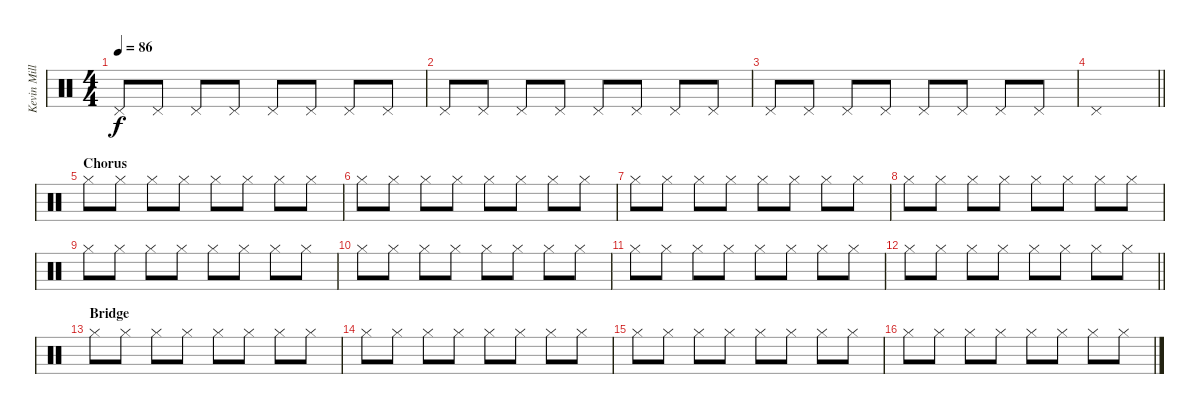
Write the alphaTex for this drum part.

\track ("Kevin Miller (Drums)" "Kevin Mill") {instrument percussion}
\staff {score}
\articulation defaults
\ts (4 4)
\tempo 86
\clef neutral
\ks c "Pedal Hi-Hat (hit)".8{dy f} "Pedal Hi-Hat (hit)".8 "Pedal Hi-Hat (hit)".8 "Pedal Hi-Hat (hit)".8 "Pedal Hi-Hat (hit)".8 "Pedal Hi-Hat (hit)".8 "Pedal Hi-Hat (hit)".8 "Pedal Hi-Hat (hit)".8
|
"Pedal Hi-Hat (hit)".8 "Pedal Hi-Hat (hit)".8 "Pedal Hi-Hat (hit)".8 "Pedal Hi-Hat (hit)".8 "Pedal Hi-Hat (hit)".8 "Pedal Hi-Hat (hit)".8 "Pedal Hi-Hat (hit)".8 "Pedal Hi-Hat (hit)".8 |
"Pedal Hi-Hat (hit)".8 "Pedal Hi-Hat (hit)".8 "Pedal Hi-Hat (hit)".8 "Pedal Hi-Hat (hit)".8 "Pedal Hi-Hat (hit)".8 "Pedal Hi-Hat (hit)".8 "Pedal Hi-Hat (hit)".8 "Pedal Hi-Hat (hit)".8 |
\barLineRight lightlight "Pedal Hi-Hat (hit)".1
|
\section ("" "Chorus")
"Hi-Hat (closed)".8 "Hi-Hat (closed)".8 "Hi-Hat (closed)".8 "Hi-Hat (closed)".8 "Hi-Hat (closed)".8 "Hi-Hat (closed)".8 "Hi-Hat (closed)".8 "Hi-Hat (closed)".8 |
"Hi-Hat (closed)".8 "Hi-Hat (closed)".8 "Hi-Hat (closed)".8 "Hi-Hat (closed)".8 "Hi-Hat (closed)".8 "Hi-Hat (closed)".8 "Hi-Hat (closed)".8 "Hi-Hat (closed)".8 |
"Hi-Hat (closed)".8 "Hi-Hat (closed)".8 "Hi-Hat (closed)".8 "Hi-Hat (closed)".8 "Hi-Hat (closed)".8 "Hi-Hat (closed)".8 "Hi-Hat (closed)".8 "Hi-Hat (closed)".8 |
"Hi-Hat (closed)".8 "Hi-Hat (closed)".8 "Hi-Hat (closed)".8 "Hi-Hat (closed)".8 "Hi-Hat (closed)".8 "Hi-Hat (closed)".8 "Hi-Hat (closed)".8 "Hi-Hat (closed)".8 |
"Hi-Hat (closed)".8 "Hi-Hat (closed)".8 "Hi-Hat (closed)".8 "Hi-Hat (closed)".8 "Hi-Hat (closed)".8 "Hi-Hat (closed)".8 "Hi-Hat (closed)".8 "Hi-Hat (closed)".8 |
"Hi-Hat (closed)".8 "Hi-Hat (closed)".8 "Hi-Hat (closed)".8 "Hi-Hat (closed)".8 "Hi-Hat (closed)".8 "Hi-Hat (closed)".8 "Hi-Hat (closed)".8 "Hi-Hat (closed)".8 |
"Hi-Hat (closed)".8 "Hi-Hat (closed)".8 "Hi-Hat (closed)".8 "Hi-Hat (closed)".8 "Hi-Hat (closed)".8 "Hi-Hat (closed)".8 "Hi-Hat (closed)".8 "Hi-Hat (closed)".8 |
\barLineRight lightlight "Hi-Hat (closed)".8 "Hi-Hat (closed)".8 "Hi-Hat (closed)".8 "Hi-Hat (closed)".8 "Hi-Hat (closed)".8 "Hi-Hat (closed)".8 "Hi-Hat (closed)".8 "Hi-Hat (closed)".8
|
\section ("" "Bridge")
"Hi-Hat (closed)".8 "Hi-Hat (closed)".8 "Hi-Hat (closed)".8 "Hi-Hat (closed)".8 "Hi-Hat (closed)".8 "Hi-Hat (closed)".8 "Hi-Hat (closed)".8 "Hi-Hat (closed)".8 |
"Hi-Hat (closed)".8 "Hi-Hat (closed)".8 "Hi-Hat (closed)".8 "Hi-Hat (closed)".8 "Hi-Hat (closed)".8 "Hi-Hat (closed)".8 "Hi-Hat (closed)".8 "Hi-Hat (closed)".8 |
"Hi-Hat (closed)".8 "Hi-Hat (closed)".8 "Hi-Hat (closed)".8 "Hi-Hat (closed)".8 "Hi-Hat (closed)".8 "Hi-Hat (closed)".8 "Hi-Hat (closed)".8 "Hi-Hat (closed)".8 |
"Hi-Hat (closed)".8 "Hi-Hat (closed)".8 "Hi-Hat (closed)".8 "Hi-Hat (closed)".8 "Hi-Hat (closed)".8 "Hi-Hat (closed)".8 "Hi-Hat (closed)".8 "Hi-Hat (closed)".8
